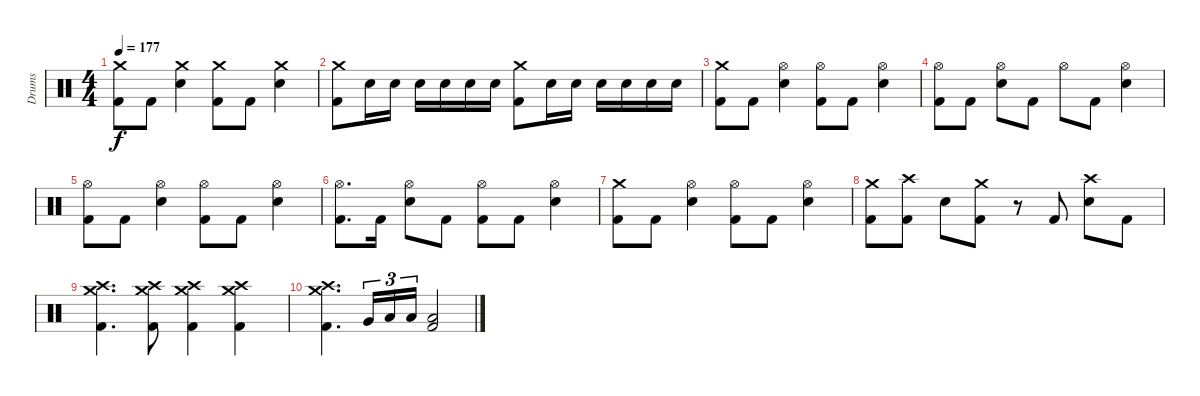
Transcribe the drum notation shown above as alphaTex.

\track ("Drums" "Drums") {instrument percussion}
\staff {score}
\articulation defaults
\ts (4 4)
\tempo 177
\clef neutral
\ks c
("Crash medium (hit)" "Kick (hit) 2").8{dy f} "Kick (hit) 2".8 ("Crash medium (hit)" "Snare (hit) 2").4 ("Crash medium (hit)" "Kick (hit) 2").8 "Kick (hit) 2".8 ("Crash medium (hit)" "Snare (hit) 2").4 |
("Crash medium (hit)" "Kick (hit) 2").8 "Snare (hit) 2".16 "Snare (hit) 2".16 "Snare (hit) 2".16 "Snare (hit) 2".16 "Snare (hit) 2".16 "Snare (hit) 2".16 ("Crash medium (hit)" "Kick (hit) 2").8 "Snare (hit) 2".16 "Snare (hit) 2".16 "Snare (hit) 2".16 "Snare (hit) 2".16 "Snare (hit) 2".16 "Snare (hit) 2".16 |
("Crash medium (hit)" "Kick (hit) 2").8 "Kick (hit) 2".8 ("Hi-Hat (open)" "Snare (hit) 2").4 ("Hi-Hat (open)" "Kick (hit) 2").8 "Kick (hit) 2".8 ("Hi-Hat (open)" "Snare (hit) 2").4 |
("Hi-Hat (open)" "Kick (hit) 2").8 "Kick (hit) 2".8 ("Hi-Hat (open)" "Snare (hit) 2").8 "Kick (hit) 2".8 "Hi-Hat (open)".8 "Kick (hit) 2".8 ("Hi-Hat (open)" "Snare (hit) 2").4 |
("Hi-Hat (open)" "Kick (hit) 2").8 "Kick (hit) 2".8 ("Hi-Hat (open)" "Snare (hit) 2").4 ("Hi-Hat (open)" "Kick (hit) 2").8 "Kick (hit) 2".8 ("Hi-Hat (open)" "Snare (hit) 2").4 |
("Hi-Hat (open)" "Kick (hit) 2").8{d} "Kick (hit) 2".16 ("Hi-Hat (open)" "Snare (hit) 2").8 "Kick (hit) 2".8 ("Hi-Hat (open)" "Kick (hit) 2").8 "Kick (hit) 2".8 ("Hi-Hat (open)" "Snare (hit) 2").4 |
("Crash medium (hit)" "Kick (hit) 2").8 "Kick (hit) 2".8 ("Hi-Hat (open)" "Snare (hit) 2").4 ("Hi-Hat (open)" "Kick (hit) 2").8 "Kick (hit) 2".8 ("Hi-Hat (open)" "Snare (hit) 2").4 |
("Crash medium (hit)" "Kick (hit) 2").8 ("Crash high (hit)" "Kick (hit) 2").8 "Snare (hit) 2".8 ("Crash medium (hit)" "Kick (hit) 2").8 r.8 "Kick (hit) 2".8 ("Crash high (hit)" "Snare (hit) 2").8 "Kick (hit) 2".8 |
("Crash medium (hit)" "Crash high (hit)" "Kick (hit) 2").4{d} ("Crash medium (hit)" "Crash high (hit)" "Kick (hit) 2").8 ("Crash medium (hit)" "Crash high (hit)" "Kick (hit) 2").4 ("Crash medium (hit)" "Crash high (hit)" "Kick (hit) 2").4 |
("Crash medium (hit)" "Crash high (hit)" "Kick (hit) 2").4{d} "Very Low Tom (hit)".16{tu (3 2)} "Low Floor Tom (hit)".16{tu (3 2)} "Low Floor Tom (hit)".16{tu (3 2)} ("Low Floor Tom (hit)" "Kick (hit) 2").2
